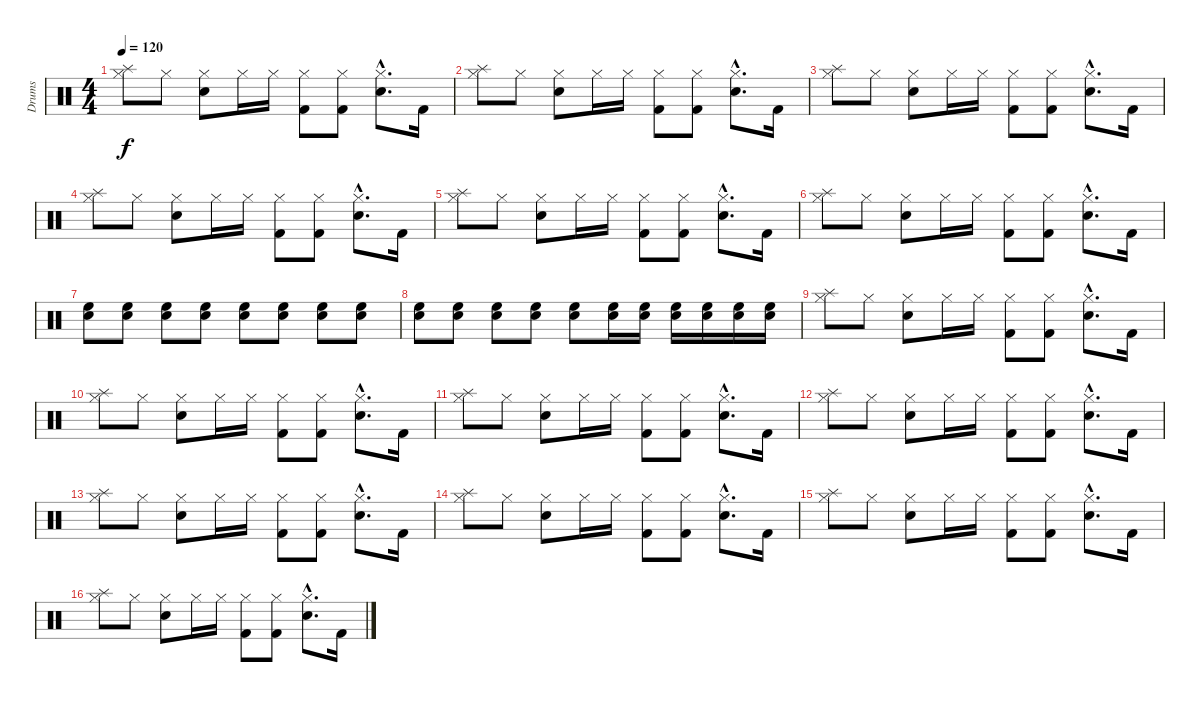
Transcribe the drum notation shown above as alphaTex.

\track ("Drums" "Drums") {instrument percussion}
\staff {score}
\articulation defaults
\ts (4 4)
\tempo 120
\clef neutral
\ks c
("Splash (hit)" "Hi-Hat (closed)").8{dy f} "Hi-Hat (closed)".8 ("Snare (hit) 2" "Hi-Hat (closed)").8 "Hi-Hat (closed)".16 "Hi-Hat (closed)".16 ("Kick (hit) 2" "Hi-Hat (closed)").8 ("Kick (hit) 2" "Hi-Hat (closed)").8 ("Snare (hit) 2"{hac} "Hi-Hat (closed)"{hac}).8{d} "Kick (hit) 2".16 |
("Splash (hit)" "Hi-Hat (closed)").8 "Hi-Hat (closed)".8 ("Snare (hit) 2" "Hi-Hat (closed)").8 "Hi-Hat (closed)".16 "Hi-Hat (closed)".16 ("Kick (hit) 2" "Hi-Hat (closed)").8 ("Kick (hit) 2" "Hi-Hat (closed)").8 ("Snare (hit) 2"{hac} "Hi-Hat (closed)"{hac}).8{d} "Kick (hit) 2".16 |
("Splash (hit)" "Hi-Hat (closed)").8 "Hi-Hat (closed)".8 ("Snare (hit) 2" "Hi-Hat (closed)").8 "Hi-Hat (closed)".16 "Hi-Hat (closed)".16 ("Kick (hit) 2" "Hi-Hat (closed)").8 ("Kick (hit) 2" "Hi-Hat (closed)").8 ("Snare (hit) 2"{hac} "Hi-Hat (closed)"{hac}).8{d} "Kick (hit) 2".16 |
("Splash (hit)" "Hi-Hat (closed)").8 "Hi-Hat (closed)".8 ("Snare (hit) 2" "Hi-Hat (closed)").8 "Hi-Hat (closed)".16 "Hi-Hat (closed)".16 ("Kick (hit) 2" "Hi-Hat (closed)").8 ("Kick (hit) 2" "Hi-Hat (closed)").8 ("Snare (hit) 2"{hac} "Hi-Hat (closed)"{hac}).8{d} "Kick (hit) 2".16 |
("Splash (hit)" "Hi-Hat (closed)").8 "Hi-Hat (closed)".8 ("Snare (hit) 2" "Hi-Hat (closed)").8 "Hi-Hat (closed)".16 "Hi-Hat (closed)".16 ("Kick (hit) 2" "Hi-Hat (closed)").8 ("Kick (hit) 2" "Hi-Hat (closed)").8 ("Snare (hit) 2"{hac} "Hi-Hat (closed)"{hac}).8{d} "Kick (hit) 2".16 |
("Splash (hit)" "Hi-Hat (closed)").8 "Hi-Hat (closed)".8 ("Snare (hit) 2" "Hi-Hat (closed)").8 "Hi-Hat (closed)".16 "Hi-Hat (closed)".16 ("Kick (hit) 2" "Hi-Hat (closed)").8 ("Kick (hit) 2" "Hi-Hat (closed)").8 ("Snare (hit) 2"{hac} "Hi-Hat (closed)"{hac}).8{d} "Kick (hit) 2".16 |
("Snare (hit) 2" "High Floor Tom (hit)").8 ("Snare (hit) 2" "High Floor Tom (hit)").8 ("Snare (hit) 2" "High Floor Tom (hit)").8 ("Snare (hit) 2" "High Floor Tom (hit)").8 ("Snare (hit) 2" "High Floor Tom (hit)").8 ("Snare (hit) 2" "High Floor Tom (hit)").8 ("Snare (hit) 2" "High Floor Tom (hit)").8 ("Snare (hit) 2" "High Floor Tom (hit)").8 |
("Snare (hit) 2" "High Floor Tom (hit)").8 ("Snare (hit) 2" "High Floor Tom (hit)").8 ("Snare (hit) 2" "High Floor Tom (hit)").8 ("Snare (hit) 2" "High Floor Tom (hit)").8 ("Snare (hit) 2" "High Floor Tom (hit)").8 ("Snare (hit) 2" "High Floor Tom (hit)").16 ("Snare (hit) 2" "High Floor Tom (hit)").16 ("Snare (hit) 2" "High Floor Tom (hit)").16 ("Snare (hit) 2" "High Floor Tom (hit)").16 ("Snare (hit) 2" "High Floor Tom (hit)").16 ("Snare (hit) 2" "High Floor Tom (hit)").16 |
("Splash (hit)" "Hi-Hat (closed)").8 "Hi-Hat (closed)".8 ("Snare (hit) 2" "Hi-Hat (closed)").8 "Hi-Hat (closed)".16 "Hi-Hat (closed)".16 ("Kick (hit) 2" "Hi-Hat (closed)").8 ("Kick (hit) 2" "Hi-Hat (closed)").8 ("Snare (hit) 2"{hac} "Hi-Hat (closed)"{hac}).8{d} "Kick (hit) 2".16 |
("Splash (hit)" "Hi-Hat (closed)").8 "Hi-Hat (closed)".8 ("Snare (hit) 2" "Hi-Hat (closed)").8 "Hi-Hat (closed)".16 "Hi-Hat (closed)".16 ("Kick (hit) 2" "Hi-Hat (closed)").8 ("Kick (hit) 2" "Hi-Hat (closed)").8 ("Snare (hit) 2"{hac} "Hi-Hat (closed)"{hac}).8{d} "Kick (hit) 2".16 |
("Splash (hit)" "Hi-Hat (closed)").8 "Hi-Hat (closed)".8 ("Snare (hit) 2" "Hi-Hat (closed)").8 "Hi-Hat (closed)".16 "Hi-Hat (closed)".16 ("Kick (hit) 2" "Hi-Hat (closed)").8 ("Kick (hit) 2" "Hi-Hat (closed)").8 ("Snare (hit) 2"{hac} "Hi-Hat (closed)"{hac}).8{d} "Kick (hit) 2".16 |
("Splash (hit)" "Hi-Hat (closed)").8 "Hi-Hat (closed)".8 ("Snare (hit) 2" "Hi-Hat (closed)").8 "Hi-Hat (closed)".16 "Hi-Hat (closed)".16 ("Kick (hit) 2" "Hi-Hat (closed)").8 ("Kick (hit) 2" "Hi-Hat (closed)").8 ("Snare (hit) 2"{hac} "Hi-Hat (closed)"{hac}).8{d} "Kick (hit) 2".16 |
("Splash (hit)" "Hi-Hat (closed)").8 "Hi-Hat (closed)".8 ("Snare (hit) 2" "Hi-Hat (closed)").8 "Hi-Hat (closed)".16 "Hi-Hat (closed)".16 ("Kick (hit) 2" "Hi-Hat (closed)").8 ("Kick (hit) 2" "Hi-Hat (closed)").8 ("Snare (hit) 2"{hac} "Hi-Hat (closed)"{hac}).8{d} "Kick (hit) 2".16 |
("Splash (hit)" "Hi-Hat (closed)").8 "Hi-Hat (closed)".8 ("Snare (hit) 2" "Hi-Hat (closed)").8 "Hi-Hat (closed)".16 "Hi-Hat (closed)".16 ("Kick (hit) 2" "Hi-Hat (closed)").8 ("Kick (hit) 2" "Hi-Hat (closed)").8 ("Snare (hit) 2"{hac} "Hi-Hat (closed)"{hac}).8{d} "Kick (hit) 2".16 |
("Splash (hit)" "Hi-Hat (closed)").8 "Hi-Hat (closed)".8 ("Snare (hit) 2" "Hi-Hat (closed)").8 "Hi-Hat (closed)".16 "Hi-Hat (closed)".16 ("Kick (hit) 2" "Hi-Hat (closed)").8 ("Kick (hit) 2" "Hi-Hat (closed)").8 ("Snare (hit) 2"{hac} "Hi-Hat (closed)"{hac}).8{d} "Kick (hit) 2".16 |
("Splash (hit)" "Hi-Hat (closed)").8 "Hi-Hat (closed)".8 ("Snare (hit) 2" "Hi-Hat (closed)").8 "Hi-Hat (closed)".16 "Hi-Hat (closed)".16 ("Kick (hit) 2" "Hi-Hat (closed)").8 ("Kick (hit) 2" "Hi-Hat (closed)").8 ("Snare (hit) 2"{hac} "Hi-Hat (closed)"{hac}).8{d} "Kick (hit) 2".16
